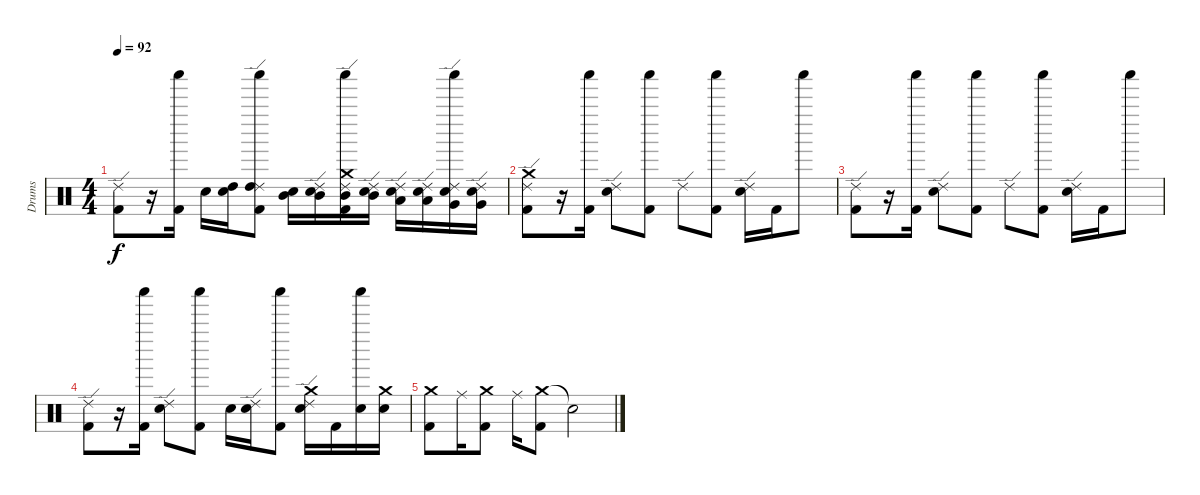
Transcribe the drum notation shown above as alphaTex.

\track ("Drums" "Drums") {instrument percussion}
\staff {score}
\articulation defaults
\ts (4 4)
\tempo 92
\clef neutral
\ks c
("Ride (edge) 2" "Kick (hit) 2").8{dy f} r.16 ("Shaker (hit)" "Kick (hit) 2").16 "Electric Snare (hit)".16 ("High Tom (hit)" "Electric Snare (hit)").16 ("Ride (edge) 2" "Shaker (hit)" "High Tom (hit)" "Kick (hit) 2").8 ("Mid Tom (hit)" "Electric Snare (hit)").16 ("Ride (edge) 2" "Mid Tom (hit)" "Electric Snare (hit)").16 ("Ride (edge) 2" "Crash medium (hit)" "Shaker (hit)" "Mid Tom (hit)" "Kick (hit) 2").16 ("Ride (edge) 2" "Mid Tom (hit)" "Electric Snare (hit)").16 ("Ride (edge) 2" "Low Tom (hit)" "Electric Snare (hit)").16 ("Ride (edge) 2" "Low Tom (hit)" "Electric Snare (hit)").16 ("Ride (edge) 2" "Shaker (hit)" "Very Low Tom (hit)" "Electric Snare (hit)").16 ("Ride (edge) 2" "Very Low Tom (hit)" "Electric Snare (hit)").16 |
("Ride (edge) 2" "Crash medium (hit)" "Kick (hit) 2").8 r.16 ("Shaker (hit)" "Kick (hit) 2").16 ("Ride (edge) 2" "Electric Snare (hit)").8 ("Shaker (hit)" "Kick (hit) 2").8 "Ride (edge) 2".8 ("Shaker (hit)" "Kick (hit) 2").8 ("Ride (edge) 2" "Electric Snare (hit)").16 "Kick (hit) 2".16 "Shaker (hit)".8 |
("Ride (edge) 2" "Kick (hit) 2").8 r.16 ("Shaker (hit)" "Kick (hit) 2").16 ("Ride (edge) 2" "Electric Snare (hit)").8 ("Shaker (hit)" "Kick (hit) 2").8 "Ride (edge) 2".8 ("Shaker (hit)" "Kick (hit) 2").8 ("Ride (edge) 2" "Electric Snare (hit)").16 "Kick (hit) 2".16 "Shaker (hit)".8 |
("Ride (edge) 2" "Kick (hit) 2").8 r.16 ("Shaker (hit)" "Kick (hit) 2").16 ("Ride (edge) 2" "Electric Snare (hit)").8 ("Shaker (hit)" "Kick (hit) 2").8 "Electric Snare (hit)".16 ("Ride (edge) 2" "Electric Snare (hit)").16 ("Shaker (hit)" "Kick (hit) 2").8 ("Ride (edge) 2" "Crash medium (hit)" "Electric Snare (hit)").16 "Kick (hit) 2".16 ("Shaker (hit)" "Electric Snare (hit)").16 ("Crash medium (hit)" "Electric Snare (hit)").16 |
("Crash medium (hit)" "Kick (hit) 2").8 "Ride (middle)".16 ("Crash medium (hit)" "Kick (hit) 2").8 "Ride (middle)".16 ("Crash medium (hit)" "Kick (hit) 2").8 "Snare (hit)"{t}.2
